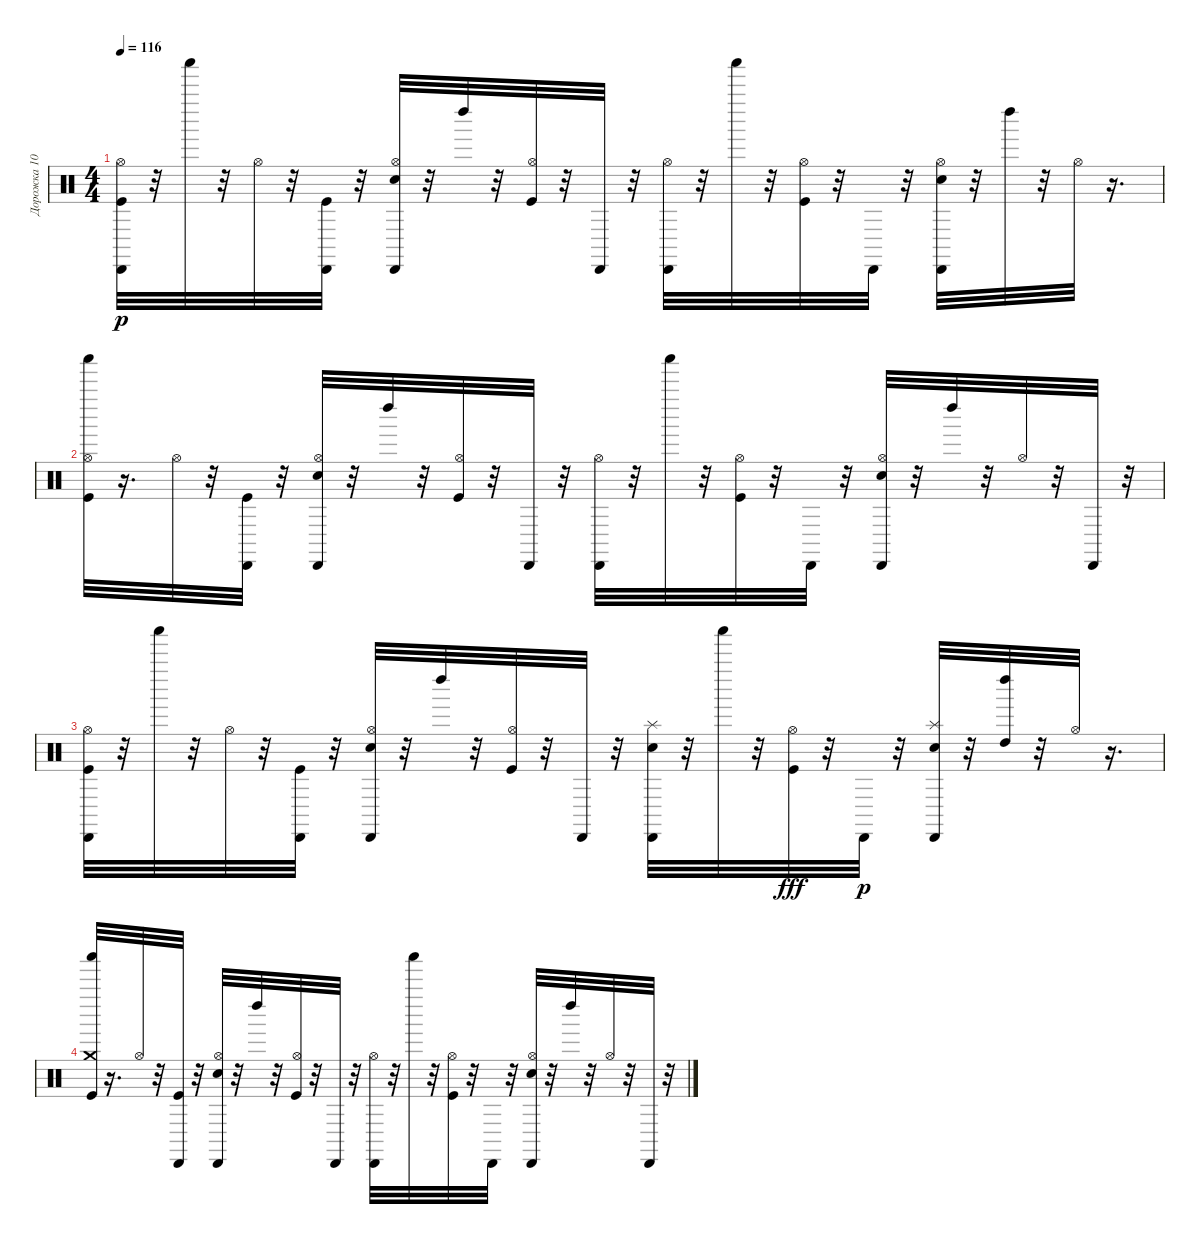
\track ("Дорожка 10" "Дорожка 10") {instrument percussion}
\staff {score}
\articulation defaults
\ts (4 4)
\tempo 116
\clef neutral
\ks c
("Kick (hit)" "Hi-Hat (open)" "Cabasa (hit)").32{dy p} r.32 "Shaker (hit)".32 r.32 "Hi-Hat (open)".32 r.32 ("Kick (hit)" "Cabasa (hit)").32 r.32 ("Electric Snare (hit)" "Hi-Hat (open)" "Cabasa (hit)").32 r.32 "Left Maraca (hit)".32 r.32 ("Kick (hit)" "Hi-Hat (open)").32 r.32 "Cabasa (hit)".32 r.32 ("Hi-Hat (open)" "Cabasa (hit)").32 r.32 "Shaker (hit)".32 r.32 ("Hi-Hat (open)" "Kick (hit)").32 r.32 "Cabasa (hit)".32 r.32 ("Electric Snare (hit)" "Hi-Hat (open)" "Cabasa (hit)").32 r.32 "Left Maraca (hit)".32 r.32 "Hi-Hat (open)".32 r.16{d} |
("Kick (hit)" "Hi-Hat (open)" "Shaker (hit)").32 r.16{d} "Hi-Hat (open)".32 r.32 ("Kick (hit)" "Cabasa (hit)").32 r.32 ("Electric Snare (hit)" "Hi-Hat (open)" "Cabasa (hit)").32 r.32 "Left Maraca (hit)".32 r.32 ("Kick (hit)" "Hi-Hat (open)").32 r.32 "Cabasa (hit)".32 r.32 ("Hi-Hat (open)" "Cabasa (hit)").32 r.32 "Shaker (hit)".32 r.32 ("Kick (hit)" "Hi-Hat (open)").32 r.32 "Cabasa (hit)".32 r.32 ("Electric Snare (hit)" "Hi-Hat (open)" "Cabasa (hit)").32 r.32 "Left Maraca (hit)".32 r.32 "Hi-Hat (open)".32 r.32 "Cabasa (hit)".32 r.32 |
("Kick (hit)" "Hi-Hat (open)" "Cabasa (hit)").32 r.32 "Shaker (hit)".32 r.32 "Hi-Hat (open)".32 r.32 ("Kick (hit)" "Cabasa (hit)").32 r.32 ("Electric Snare (hit)" "Hi-Hat (open)" "Cabasa (hit)").32 r.32 "Left Maraca (hit)".32 r.32 ("Kick (hit)" "Hi-Hat (open)").32 r.32 "Cabasa (hit)".32 r.32 ("Electric Snare (hit)" "Splash (hit)" "Cabasa (hit)").32 r.32 "Shaker (hit)".32 r.32 ("Hi-Hat (open)" "Kick (hit)").32{dy fff} r.32 "Cabasa (hit)".32{dy p} r.32 ("Electric Snare (hit)" "Splash (hit)" "Cabasa (hit)").32 r.32 ("High Tom (hit)" "Left Maraca (hit)").32 r.32 "Hi-Hat (open)".32 r.16{d} |
("Kick (hit)" "Crash medium (hit)" "Shaker (hit)").32 r.16{d} "Hi-Hat (open)".32 r.32 ("Kick (hit)" "Cabasa (hit)").32 r.32 ("Electric Snare (hit)" "Hi-Hat (open)" "Cabasa (hit)").32 r.32 "Left Maraca (hit)".32 r.32 ("Kick (hit)" "Hi-Hat (open)").32 r.32 "Cabasa (hit)".32 r.32 ("Hi-Hat (open)" "Cabasa (hit)").32 r.32 "Shaker (hit)".32 r.32 ("Kick (hit)" "Hi-Hat (open)").32 r.32 "Cabasa (hit)".32 r.32 ("Electric Snare (hit)" "Hi-Hat (open)" "Cabasa (hit)").32 r.32 "Left Maraca (hit)".32 r.32 "Hi-Hat (open)".32 r.32 "Cabasa (hit)".32 r.32
